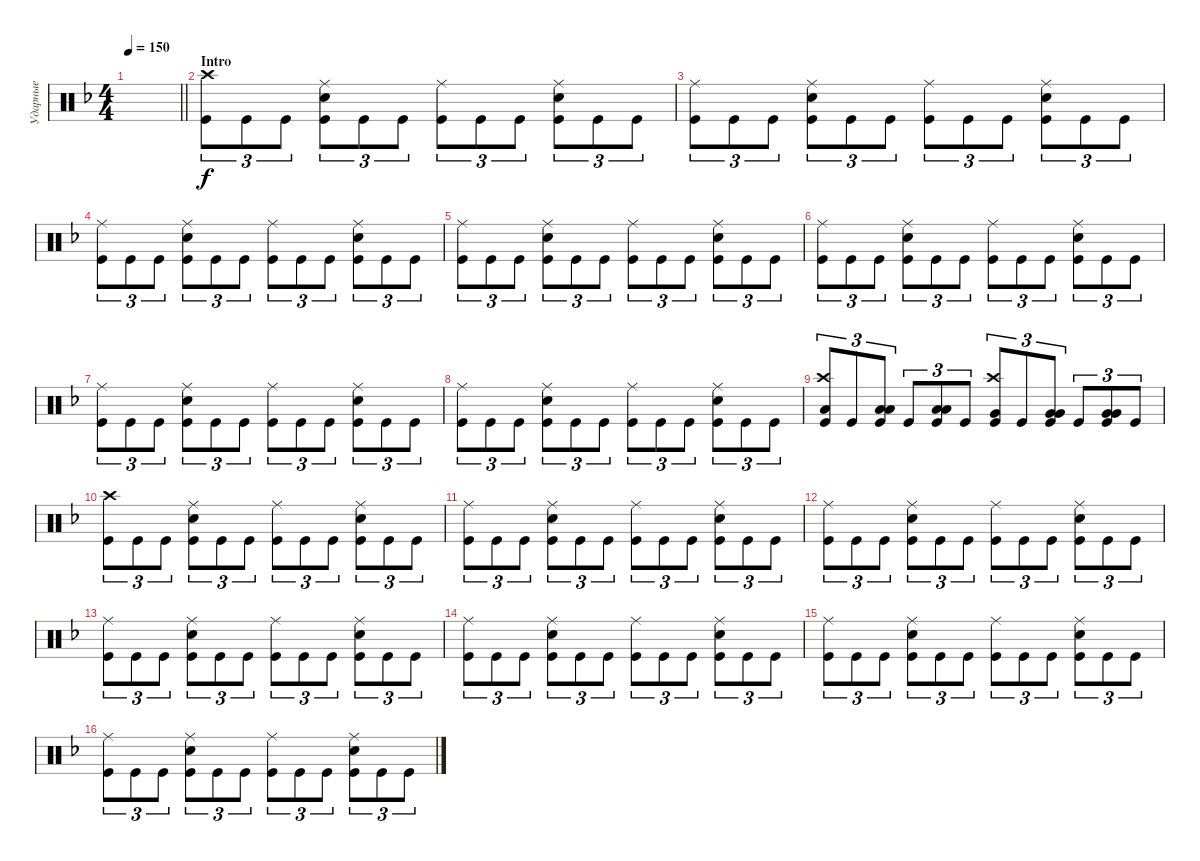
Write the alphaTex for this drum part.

\track ("Ударные" "Ударные") {instrument percussion}
\staff {score}
\articulation defaults
\ts (4 4)
\tempo 150
\clef neutral
\barLineRight lightlight
\ks dminor
|
\section ("" "Intro")
("Kick (hit)" "Crash high (hit)").8{tu (3 2)} "Kick (hit)".8{tu (3 2)} "Kick (hit)".8{tu (3 2)} ("Snare (hit) 2" "Kick (hit)" "Ride (middle)").8{tu (3 2)} "Kick (hit)".8{tu (3 2)} "Kick (hit)".8{tu (3 2)} ("Kick (hit)" "Ride (middle)").8{tu (3 2)} "Kick (hit)".8{tu (3 2)} "Kick (hit)".8{tu (3 2)} ("Kick (hit)" "Snare (hit) 2" "Ride (middle)").8{tu (3 2)} "Kick (hit)".8{tu (3 2)} "Kick (hit)".8{tu (3 2)} |
("Kick (hit)" "Ride (middle)").8{tu (3 2)} "Kick (hit)".8{tu (3 2)} "Kick (hit)".8{tu (3 2)} ("Snare (hit) 2" "Kick (hit)" "Ride (middle)").8{tu (3 2)} "Kick (hit)".8{tu (3 2)} "Kick (hit)".8{tu (3 2)} ("Kick (hit)" "Ride (middle)").8{tu (3 2)} "Kick (hit)".8{tu (3 2)} "Kick (hit)".8{tu (3 2)} ("Kick (hit)" "Snare (hit) 2" "Ride (middle)").8{tu (3 2)} "Kick (hit)".8{tu (3 2)} "Kick (hit)".8{tu (3 2)} |
("Kick (hit)" "Ride (middle)").8{tu (3 2)} "Kick (hit)".8{tu (3 2)} "Kick (hit)".8{tu (3 2)} ("Snare (hit) 2" "Kick (hit)" "Ride (middle)").8{tu (3 2)} "Kick (hit)".8{tu (3 2)} "Kick (hit)".8{tu (3 2)} ("Kick (hit)" "Ride (middle)").8{tu (3 2)} "Kick (hit)".8{tu (3 2)} "Kick (hit)".8{tu (3 2)} ("Kick (hit)" "Snare (hit) 2" "Ride (middle)").8{tu (3 2)} "Kick (hit)".8{tu (3 2)} "Kick (hit)".8{tu (3 2)} |
("Kick (hit)" "Ride (middle)").8{tu (3 2)} "Kick (hit)".8{tu (3 2)} "Kick (hit)".8{tu (3 2)} ("Snare (hit) 2" "Kick (hit)" "Ride (middle)").8{tu (3 2)} "Kick (hit)".8{tu (3 2)} "Kick (hit)".8{tu (3 2)} ("Kick (hit)" "Ride (middle)").8{tu (3 2)} "Kick (hit)".8{tu (3 2)} "Kick (hit)".8{tu (3 2)} ("Kick (hit)" "Snare (hit) 2" "Ride (middle)").8{tu (3 2)} "Kick (hit)".8{tu (3 2)} "Kick (hit)".8{tu (3 2)} |
("Kick (hit)" "Ride (middle)").8{tu (3 2)} "Kick (hit)".8{tu (3 2)} "Kick (hit)".8{tu (3 2)} ("Snare (hit) 2" "Kick (hit)" "Ride (middle)").8{tu (3 2)} "Kick (hit)".8{tu (3 2)} "Kick (hit)".8{tu (3 2)} ("Kick (hit)" "Ride (middle)").8{tu (3 2)} "Kick (hit)".8{tu (3 2)} "Kick (hit)".8{tu (3 2)} ("Kick (hit)" "Snare (hit) 2" "Ride (middle)").8{tu (3 2)} "Kick (hit)".8{tu (3 2)} "Kick (hit)".8{tu (3 2)} |
("Kick (hit)" "Ride (middle)").8{tu (3 2)} "Kick (hit)".8{tu (3 2)} "Kick (hit)".8{tu (3 2)} ("Snare (hit) 2" "Kick (hit)" "Ride (middle)").8{tu (3 2)} "Kick (hit)".8{tu (3 2)} "Kick (hit)".8{tu (3 2)} ("Kick (hit)" "Ride (middle)").8{tu (3 2)} "Kick (hit)".8{tu (3 2)} "Kick (hit)".8{tu (3 2)} ("Kick (hit)" "Snare (hit) 2" "Ride (middle)").8{tu (3 2)} "Kick (hit)".8{tu (3 2)} "Kick (hit)".8{tu (3 2)} |
("Kick (hit)" "Ride (middle)").8{tu (3 2)} "Kick (hit)".8{tu (3 2)} "Kick (hit)".8{tu (3 2)} ("Snare (hit) 2" "Kick (hit)" "Ride (middle)").8{tu (3 2)} "Kick (hit)".8{tu (3 2)} "Kick (hit)".8{tu (3 2)} ("Kick (hit)" "Ride (middle)").8{tu (3 2)} "Kick (hit)".8{tu (3 2)} "Kick (hit)".8{tu (3 2)} ("Kick (hit)" "Snare (hit) 2" "Ride (middle)").8{tu (3 2)} "Kick (hit)".8{tu (3 2)} "Kick (hit)".8{tu (3 2)} |
("Kick (hit)" "Crash high (hit)" "Low Tom (hit)").8{tu (3 2)} "Kick (hit)".8{tu (3 2)} ("Kick (hit)" "Low Tom (hit)" "Low Tom (hit)").8{tu (3 2) bd 240} "Kick (hit)".8{tu (3 2)} ("Kick (hit)" "Low Tom (hit)" "Low Tom (hit)").8{tu (3 2) bd 240} "Kick (hit)".8{tu (3 2)} ("Kick (hit)" "Crash high (hit)" "Very Low Tom (hit)").8{tu (3 2)} "Kick (hit)".8{tu (3 2)} ("Kick (hit)" "Very Low Tom (hit)" "Very Low Tom (hit)").8{tu (3 2) bd 240} "Kick (hit)".8{tu (3 2)} ("Kick (hit)" "Very Low Tom (hit)" "Very Low Tom (hit)").8{tu (3 2) bd 240} "Kick (hit)".8{tu (3 2)} |
("Kick (hit)" "Crash high (hit)").8{tu (3 2)} "Kick (hit)".8{tu (3 2)} "Kick (hit)".8{tu (3 2)} ("Snare (hit) 2" "Kick (hit)" "Ride (middle)").8{tu (3 2)} "Kick (hit)".8{tu (3 2)} "Kick (hit)".8{tu (3 2)} ("Kick (hit)" "Ride (middle)").8{tu (3 2)} "Kick (hit)".8{tu (3 2)} "Kick (hit)".8{tu (3 2)} ("Kick (hit)" "Snare (hit) 2" "Ride (middle)").8{tu (3 2)} "Kick (hit)".8{tu (3 2)} "Kick (hit)".8{tu (3 2)} |
("Kick (hit)" "Ride (middle)").8{tu (3 2)} "Kick (hit)".8{tu (3 2)} "Kick (hit)".8{tu (3 2)} ("Snare (hit) 2" "Kick (hit)" "Ride (middle)").8{tu (3 2)} "Kick (hit)".8{tu (3 2)} "Kick (hit)".8{tu (3 2)} ("Kick (hit)" "Ride (middle)").8{tu (3 2)} "Kick (hit)".8{tu (3 2)} "Kick (hit)".8{tu (3 2)} ("Kick (hit)" "Snare (hit) 2" "Ride (middle)").8{tu (3 2)} "Kick (hit)".8{tu (3 2)} "Kick (hit)".8{tu (3 2)} |
("Kick (hit)" "Ride (middle)").8{tu (3 2)} "Kick (hit)".8{tu (3 2)} "Kick (hit)".8{tu (3 2)} ("Snare (hit) 2" "Kick (hit)" "Ride (middle)").8{tu (3 2)} "Kick (hit)".8{tu (3 2)} "Kick (hit)".8{tu (3 2)} ("Kick (hit)" "Ride (middle)").8{tu (3 2)} "Kick (hit)".8{tu (3 2)} "Kick (hit)".8{tu (3 2)} ("Kick (hit)" "Snare (hit) 2" "Ride (middle)").8{tu (3 2)} "Kick (hit)".8{tu (3 2)} "Kick (hit)".8{tu (3 2)} |
("Kick (hit)" "Ride (middle)").8{tu (3 2)} "Kick (hit)".8{tu (3 2)} "Kick (hit)".8{tu (3 2)} ("Snare (hit) 2" "Kick (hit)" "Ride (middle)").8{tu (3 2)} "Kick (hit)".8{tu (3 2)} "Kick (hit)".8{tu (3 2)} ("Kick (hit)" "Ride (middle)").8{tu (3 2)} "Kick (hit)".8{tu (3 2)} "Kick (hit)".8{tu (3 2)} ("Kick (hit)" "Snare (hit) 2" "Ride (middle)").8{tu (3 2)} "Kick (hit)".8{tu (3 2)} "Kick (hit)".8{tu (3 2)} |
("Kick (hit)" "Ride (middle)").8{tu (3 2)} "Kick (hit)".8{tu (3 2)} "Kick (hit)".8{tu (3 2)} ("Snare (hit) 2" "Kick (hit)" "Ride (middle)").8{tu (3 2)} "Kick (hit)".8{tu (3 2)} "Kick (hit)".8{tu (3 2)} ("Kick (hit)" "Ride (middle)").8{tu (3 2)} "Kick (hit)".8{tu (3 2)} "Kick (hit)".8{tu (3 2)} ("Kick (hit)" "Snare (hit) 2" "Ride (middle)").8{tu (3 2)} "Kick (hit)".8{tu (3 2)} "Kick (hit)".8{tu (3 2)} |
("Kick (hit)" "Ride (middle)").8{tu (3 2)} "Kick (hit)".8{tu (3 2)} "Kick (hit)".8{tu (3 2)} ("Snare (hit) 2" "Kick (hit)" "Ride (middle)").8{tu (3 2)} "Kick (hit)".8{tu (3 2)} "Kick (hit)".8{tu (3 2)} ("Kick (hit)" "Ride (middle)").8{tu (3 2)} "Kick (hit)".8{tu (3 2)} "Kick (hit)".8{tu (3 2)} ("Kick (hit)" "Snare (hit) 2" "Ride (middle)").8{tu (3 2)} "Kick (hit)".8{tu (3 2)} "Kick (hit)".8{tu (3 2)} |
("Kick (hit)" "Ride (middle)").8{tu (3 2)} "Kick (hit)".8{tu (3 2)} "Kick (hit)".8{tu (3 2)} ("Snare (hit) 2" "Kick (hit)" "Ride (middle)").8{tu (3 2)} "Kick (hit)".8{tu (3 2)} "Kick (hit)".8{tu (3 2)} ("Kick (hit)" "Ride (middle)").8{tu (3 2)} "Kick (hit)".8{tu (3 2)} "Kick (hit)".8{tu (3 2)} ("Kick (hit)" "Snare (hit) 2" "Ride (middle)").8{tu (3 2)} "Kick (hit)".8{tu (3 2)} "Kick (hit)".8{tu (3 2)}
